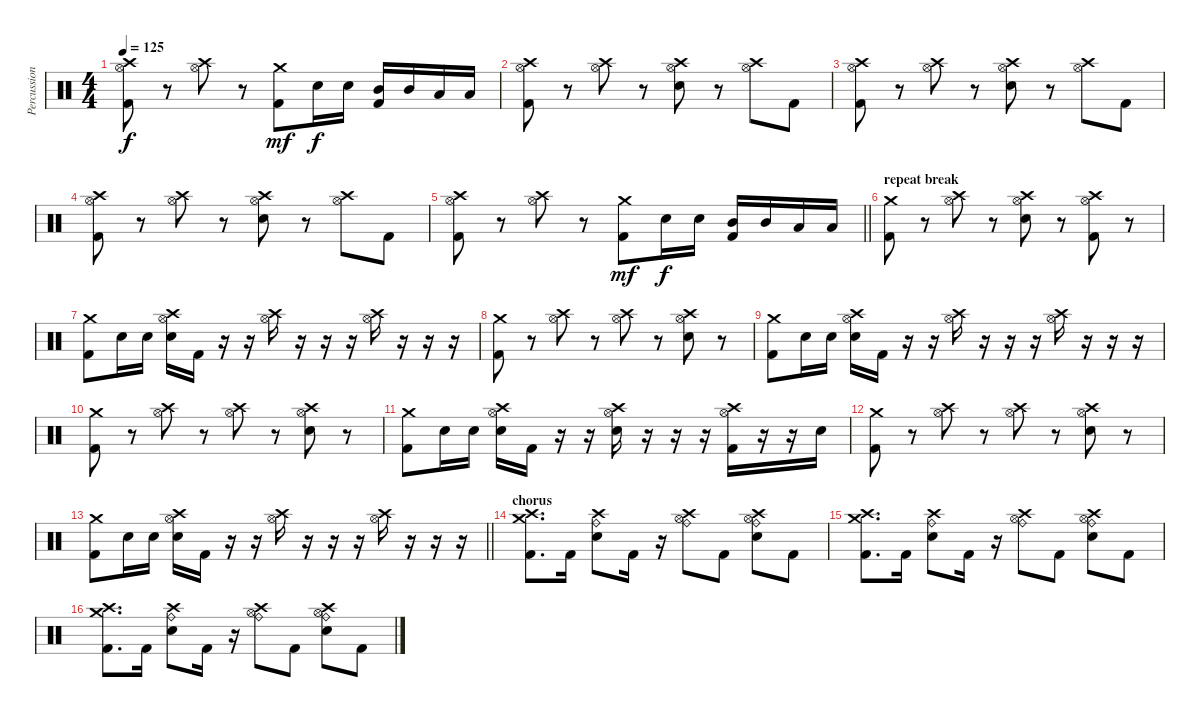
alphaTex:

\track ("Percussion" "Percussion") {instrument percussion}
\staff {score}
\articulation defaults
\ts (4 4)
\tempo 125
\clef neutral
\ks c
("Hi-Hat (open)" "Crash high (hit)" "Kick (hit) 2").8{dy f} r.8 ("Hi-Hat (open)" "Crash high (hit)").8 r.8 ("Kick (hit) 2" "Crash medium (hit)").8{dy mf} "Snare (hit) 2".16{dy f} "Snare (hit) 2".16 ("Kick (hit) 2" "Mid Tom (hit)").16 "Mid Tom (hit)".16 "Low Tom (hit)".16 "Low Tom (hit)".16 |
("Hi-Hat (open)" "Crash high (hit)" "Kick (hit) 2").8 r.8 ("Hi-Hat (open)" "Crash high (hit)").8 r.8 ("Hi-Hat (open)" "Crash high (hit)" "Electric Snare (hit)").8 r.8 ("Hi-Hat (open)" "Crash high (hit)").8 "Kick (hit) 2".8 |
("Hi-Hat (open)" "Crash high (hit)" "Kick (hit) 2").8 r.8 ("Hi-Hat (open)" "Crash high (hit)").8 r.8 ("Hi-Hat (open)" "Crash high (hit)" "Electric Snare (hit)").8 r.8 ("Hi-Hat (open)" "Crash high (hit)").8 "Kick (hit) 2".8 |
("Hi-Hat (open)" "Crash high (hit)" "Kick (hit) 2").8 r.8 ("Hi-Hat (open)" "Crash high (hit)").8 r.8 ("Hi-Hat (open)" "Crash high (hit)" "Electric Snare (hit)").8 r.8 ("Hi-Hat (open)" "Crash high (hit)").8 "Kick (hit) 2".8 |
\barLineRight lightlight
("Hi-Hat (open)" "Crash high (hit)" "Kick (hit) 2").8 r.8 ("Hi-Hat (open)" "Crash high (hit)").8 r.8 ("Kick (hit) 2" "Crash medium (hit)").8{dy mf} "Snare (hit) 2".16{dy f} "Snare (hit) 2".16 ("Kick (hit) 2" "Mid Tom (hit)").16 "Mid Tom (hit)".16 "Low Tom (hit)".16 "Low Tom (hit)".16 |
\section ("" "repeat break")
("Crash medium (hit)" "Kick (hit) 2").8 r.8 ("Hi-Hat (open)" "Crash high (hit)").8 r.8 ("Hi-Hat (open)" "Crash high (hit)" "Electric Snare (hit)").8 r.8 ("Crash high (hit)" "Hi-Hat (open)" "Kick (hit) 2").8 r.8 |
("Crash medium (hit)" "Kick (hit) 2").8 "Electric Snare (hit)".16 "Electric Snare (hit)".16 ("Hi-Hat (open)" "Crash high (hit)" "Electric Snare (hit)").16 "Kick (hit) 2".16 r.16 r.16 ("Hi-Hat (open)" "Crash high (hit)").16 r.16 r.16 r.16 ("Hi-Hat (open)" "Crash high (hit)").16 r.16 r.16 r.16 |
("Crash medium (hit)" "Kick (hit) 2").8 r.8 ("Hi-Hat (open)" "Crash high (hit)").8 r.8 ("Hi-Hat (open)" "Crash high (hit)").8 r.8 ("Crash high (hit)" "Hi-Hat (open)" "Electric Snare (hit)").8 r.8 |
("Crash medium (hit)" "Kick (hit) 2").8 "Electric Snare (hit)".16 "Electric Snare (hit)".16 ("Hi-Hat (open)" "Crash high (hit)" "Electric Snare (hit)").16 "Kick (hit) 2".16 r.16 r.16 ("Hi-Hat (open)" "Crash high (hit)").16 r.16 r.16 r.16 ("Hi-Hat (open)" "Crash high (hit)").16 r.16 r.16 r.16 |
("Crash medium (hit)" "Kick (hit) 2").8 r.8 ("Hi-Hat (open)" "Crash high (hit)").8 r.8 ("Hi-Hat (open)" "Crash high (hit)").8 r.8 ("Crash high (hit)" "Hi-Hat (open)" "Electric Snare (hit)").8 r.8 |
("Crash medium (hit)" "Kick (hit) 2").8 "Electric Snare (hit)".16 "Electric Snare (hit)".16 ("Hi-Hat (open)" "Crash high (hit)" "Electric Snare (hit)").16 "Kick (hit) 2".16 r.16 r.16 ("Hi-Hat (open)" "Crash high (hit)" "Electric Snare (hit)").16 r.16 r.16 r.16 ("Hi-Hat (open)" "Crash high (hit)" "Kick (hit) 2").16 r.16 r.16 "Electric Snare (hit)".16 |
("Crash medium (hit)" "Kick (hit) 2").8 r.8 ("Hi-Hat (open)" "Crash high (hit)").8 r.8 ("Hi-Hat (open)" "Crash high (hit)").8 r.8 ("Crash high (hit)" "Hi-Hat (open)" "Electric Snare (hit)").8 r.8 |
\barLineRight lightlight
("Crash medium (hit)" "Kick (hit) 2").8 "Electric Snare (hit)".16 "Electric Snare (hit)".16 ("Hi-Hat (open)" "Crash high (hit)" "Electric Snare (hit)").16 "Kick (hit) 2".16 r.16 r.16 ("Hi-Hat (open)" "Crash high (hit)").16 r.16 r.16 r.16 ("Hi-Hat (open)" "Crash high (hit)").16 r.16 r.16 r.16 |
\section ("" "chorus")
("Crash medium (hit)" "Crash high (hit)" "Kick (hit) 2").8{d} "Kick (hit) 2".16 ("Ride (bell)" "Crash high (hit)" "Electric Snare (hit)").8 "Kick (hit) 2".16 r.16 ("Ride (bell)" "Crash high (hit)" "Hi-Hat (open)").8 "Kick (hit) 2".8 ("Ride (bell)" "Crash high (hit)" "Hi-Hat (open)" "Electric Snare (hit)").8 "Kick (hit) 2".8 |
("Crash medium (hit)" "Crash high (hit)" "Kick (hit) 2").8{d} "Kick (hit) 2".16 ("Ride (bell)" "Crash high (hit)" "Electric Snare (hit)").8 "Kick (hit) 2".16 r.16 ("Ride (bell)" "Crash high (hit)" "Hi-Hat (open)").8 "Kick (hit) 2".8 ("Ride (bell)" "Crash high (hit)" "Hi-Hat (open)" "Electric Snare (hit)").8 "Kick (hit) 2".8 |
("Crash medium (hit)" "Crash high (hit)" "Kick (hit) 2").8{d} "Kick (hit) 2".16 ("Ride (bell)" "Crash high (hit)" "Electric Snare (hit)").8 "Kick (hit) 2".16 r.16 ("Ride (bell)" "Crash high (hit)" "Hi-Hat (open)").8 "Kick (hit) 2".8 ("Ride (bell)" "Crash high (hit)" "Hi-Hat (open)" "Electric Snare (hit)").8 "Kick (hit) 2".8
